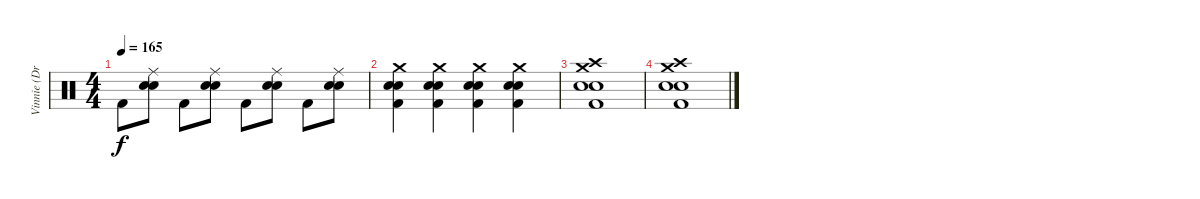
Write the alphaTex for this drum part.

\track ("Vinnie (Drums)" "Vinnie (Dr") {instrument percussion}
\staff {score}
\articulation defaults
\ts (4 4)
\tempo 165
\clef neutral
\ks c "Kick (hit) 2".8{dy f}
("Snare (hit) 2" "Electric Snare (hit)" "Ride (middle)").8 "Kick (hit) 2".8 ("Snare (hit) 2" "Electric Snare (hit)" "Ride (middle)").8 "Kick (hit) 2".8 ("Snare (hit) 2" "Electric Snare (hit)" "Ride (middle)").8 "Kick (hit) 2".8 ("Snare (hit) 2" "Electric Snare (hit)" "Ride (middle)").8 |
("Kick (hit) 2" "Snare (hit) 2" "Electric Snare (hit)" "Crash medium (hit)").4 ("Kick (hit) 2" "Snare (hit) 2" "Electric Snare (hit)" "Crash medium (hit)").4 ("Kick (hit) 2" "Snare (hit) 2" "Electric Snare (hit)" "Crash medium (hit)").4 ("Kick (hit) 2" "Snare (hit) 2" "Electric Snare (hit)" "Crash medium (hit)").4 |
("Kick (hit) 2" "Snare (hit) 2" "Electric Snare (hit)" "Crash medium (hit)" "Crash high (hit)").1 |
("Kick (hit) 2" "Snare (hit) 2" "Electric Snare (hit)" "Crash medium (hit)" "Crash high (hit)").1
